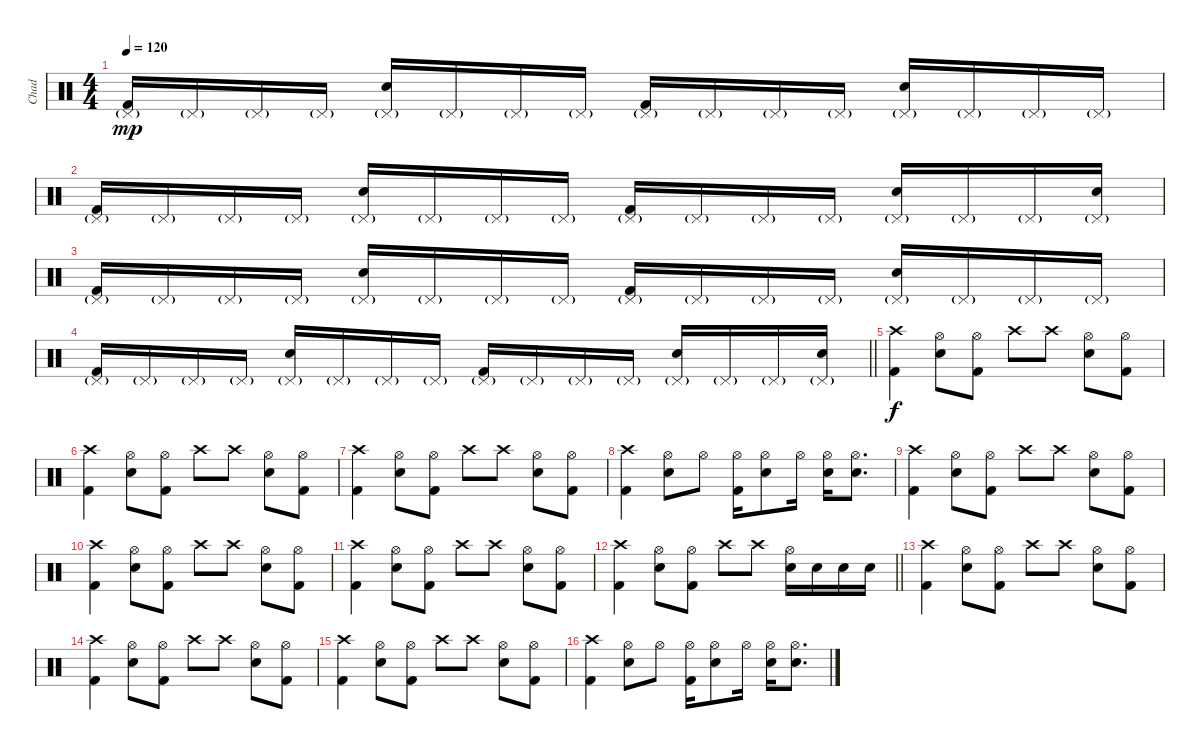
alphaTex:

\track ("Chad" "Chad") {instrument percussion}
\staff {score}
\articulation defaults
\ts (4 4)
\tempo 120
\clef neutral
\ks c
("Kick (hit) 2" "Pedal Hi-Hat (hit)"{g}).16{dy mp} "Pedal Hi-Hat (hit)"{g}.16 "Pedal Hi-Hat (hit)"{g}.16 "Pedal Hi-Hat (hit)"{g}.16 ("Electric Snare (hit)" "Pedal Hi-Hat (hit)"{g}).16 "Pedal Hi-Hat (hit)"{g}.16 "Pedal Hi-Hat (hit)"{g}.16 "Pedal Hi-Hat (hit)"{g}.16 ("Kick (hit) 2" "Pedal Hi-Hat (hit)"{g}).16 "Pedal Hi-Hat (hit)"{g}.16 "Pedal Hi-Hat (hit)"{g}.16 "Pedal Hi-Hat (hit)"{g}.16 ("Electric Snare (hit)" "Pedal Hi-Hat (hit)"{g}).16 "Pedal Hi-Hat (hit)"{g}.16 "Pedal Hi-Hat (hit)"{g}.16 "Pedal Hi-Hat (hit)"{g}.16 |
("Kick (hit) 2" "Pedal Hi-Hat (hit)"{g}).16 "Pedal Hi-Hat (hit)"{g}.16 "Pedal Hi-Hat (hit)"{g}.16 "Pedal Hi-Hat (hit)"{g}.16 ("Electric Snare (hit)" "Pedal Hi-Hat (hit)"{g}).16 "Pedal Hi-Hat (hit)"{g}.16 "Pedal Hi-Hat (hit)"{g}.16 "Pedal Hi-Hat (hit)"{g}.16 ("Kick (hit) 2" "Pedal Hi-Hat (hit)"{g}).16 "Pedal Hi-Hat (hit)"{g}.16 "Pedal Hi-Hat (hit)"{g}.16 "Pedal Hi-Hat (hit)"{g}.16 ("Electric Snare (hit)" "Pedal Hi-Hat (hit)"{g}).16 "Pedal Hi-Hat (hit)"{g}.16 "Pedal Hi-Hat (hit)"{g}.16 ("Electric Snare (hit)" "Pedal Hi-Hat (hit)"{g}).16 |
("Kick (hit) 2" "Pedal Hi-Hat (hit)"{g}).16 "Pedal Hi-Hat (hit)"{g}.16 "Pedal Hi-Hat (hit)"{g}.16 "Pedal Hi-Hat (hit)"{g}.16 ("Electric Snare (hit)" "Pedal Hi-Hat (hit)"{g}).16 "Pedal Hi-Hat (hit)"{g}.16 "Pedal Hi-Hat (hit)"{g}.16 "Pedal Hi-Hat (hit)"{g}.16 ("Kick (hit) 2" "Pedal Hi-Hat (hit)"{g}).16 "Pedal Hi-Hat (hit)"{g}.16 "Pedal Hi-Hat (hit)"{g}.16 "Pedal Hi-Hat (hit)"{g}.16 ("Electric Snare (hit)" "Pedal Hi-Hat (hit)"{g}).16 "Pedal Hi-Hat (hit)"{g}.16 "Pedal Hi-Hat (hit)"{g}.16 "Pedal Hi-Hat (hit)"{g}.16 |
\barLineRight lightlight
("Kick (hit) 2" "Pedal Hi-Hat (hit)"{g}).16 "Pedal Hi-Hat (hit)"{g}.16 "Pedal Hi-Hat (hit)"{g}.16 "Pedal Hi-Hat (hit)"{g}.16 ("Electric Snare (hit)" "Pedal Hi-Hat (hit)"{g}).16 "Pedal Hi-Hat (hit)"{g}.16 "Pedal Hi-Hat (hit)"{g}.16 "Pedal Hi-Hat (hit)"{g}.16 ("Kick (hit) 2" "Pedal Hi-Hat (hit)"{g}).16 "Pedal Hi-Hat (hit)"{g}.16 "Pedal Hi-Hat (hit)"{g}.16 "Pedal Hi-Hat (hit)"{g}.16 ("Electric Snare (hit)" "Pedal Hi-Hat (hit)"{g}).16 "Pedal Hi-Hat (hit)"{g}.16 "Pedal Hi-Hat (hit)"{g}.16 ("Electric Snare (hit)" "Pedal Hi-Hat (hit)"{g}).16 |
("Kick (hit) 2" "Crash high (hit)").4{dy f} ("Electric Snare (hit)" "Hi-Hat (open)").8 ("Kick (hit) 2" "Hi-Hat (open)").8 "Crash high (hit)".8 "Crash high (hit)".8 ("Electric Snare (hit)" "Hi-Hat (open)").8 ("Kick (hit) 2" "Hi-Hat (open)").8 |
("Kick (hit) 2" "Crash high (hit)").4 ("Electric Snare (hit)" "Hi-Hat (open)").8 ("Kick (hit) 2" "Hi-Hat (open)").8 "Crash high (hit)".8 "Crash high (hit)".8 ("Electric Snare (hit)" "Hi-Hat (open)").8 ("Kick (hit) 2" "Hi-Hat (open)").8 |
("Kick (hit) 2" "Crash high (hit)").4 ("Electric Snare (hit)" "Hi-Hat (open)").8 ("Kick (hit) 2" "Hi-Hat (open)").8 "Crash high (hit)".8 "Crash high (hit)".8 ("Electric Snare (hit)" "Hi-Hat (open)").8 ("Kick (hit) 2" "Hi-Hat (open)").8 |
("Kick (hit) 2" "Crash high (hit)").4 ("Electric Snare (hit)" "Hi-Hat (open)").8 "Hi-Hat (open)".8 ("Kick (hit) 2" "Hi-Hat (open)").16 ("Electric Snare (hit)" "Hi-Hat (open)").8 "Hi-Hat (open)".16 ("Electric Snare (hit)" "Hi-Hat (open)").16 ("Electric Snare (hit)" "Hi-Hat (open)").8{d} |
("Kick (hit) 2" "Crash high (hit)").4 ("Electric Snare (hit)" "Hi-Hat (open)").8 ("Kick (hit) 2" "Hi-Hat (open)").8 "Crash high (hit)".8 "Crash high (hit)".8 ("Electric Snare (hit)" "Hi-Hat (open)").8 ("Kick (hit) 2" "Hi-Hat (open)").8 |
("Kick (hit) 2" "Crash high (hit)").4 ("Electric Snare (hit)" "Hi-Hat (open)").8 ("Kick (hit) 2" "Hi-Hat (open)").8 "Crash high (hit)".8 "Crash high (hit)".8 ("Electric Snare (hit)" "Hi-Hat (open)").8 ("Kick (hit) 2" "Hi-Hat (open)").8 |
("Kick (hit) 2" "Crash high (hit)").4 ("Electric Snare (hit)" "Hi-Hat (open)").8 ("Kick (hit) 2" "Hi-Hat (open)").8 "Crash high (hit)".8 "Crash high (hit)".8 ("Electric Snare (hit)" "Hi-Hat (open)").8 ("Kick (hit) 2" "Hi-Hat (open)").8 |
\barLineRight lightlight
("Kick (hit) 2" "Crash high (hit)").4 ("Electric Snare (hit)" "Hi-Hat (open)").8 ("Kick (hit) 2" "Hi-Hat (open)").8 "Crash high (hit)".8 "Crash high (hit)".8 ("Electric Snare (hit)" "Hi-Hat (open)").16 "Electric Snare (hit)".16 "Electric Snare (hit)".16 "Electric Snare (hit)".16 |
("Kick (hit) 2" "Crash high (hit)").4 ("Electric Snare (hit)" "Hi-Hat (open)").8 ("Kick (hit) 2" "Hi-Hat (open)").8 "Crash high (hit)".8 "Crash high (hit)".8 ("Electric Snare (hit)" "Hi-Hat (open)").8 ("Kick (hit) 2" "Hi-Hat (open)").8 |
("Kick (hit) 2" "Crash high (hit)").4 ("Electric Snare (hit)" "Hi-Hat (open)").8 ("Kick (hit) 2" "Hi-Hat (open)").8 "Crash high (hit)".8 "Crash high (hit)".8 ("Electric Snare (hit)" "Hi-Hat (open)").8 ("Kick (hit) 2" "Hi-Hat (open)").8 |
("Kick (hit) 2" "Crash high (hit)").4 ("Electric Snare (hit)" "Hi-Hat (open)").8 ("Kick (hit) 2" "Hi-Hat (open)").8 "Crash high (hit)".8 "Crash high (hit)".8 ("Electric Snare (hit)" "Hi-Hat (open)").8 ("Kick (hit) 2" "Hi-Hat (open)").8 |
("Kick (hit) 2" "Crash high (hit)").4 ("Electric Snare (hit)" "Hi-Hat (open)").8 "Hi-Hat (open)".8 ("Kick (hit) 2" "Hi-Hat (open)").16 ("Electric Snare (hit)" "Hi-Hat (open)").8 "Hi-Hat (open)".16 ("Electric Snare (hit)" "Hi-Hat (open)").16 ("Electric Snare (hit)" "Hi-Hat (open)").8{d}
